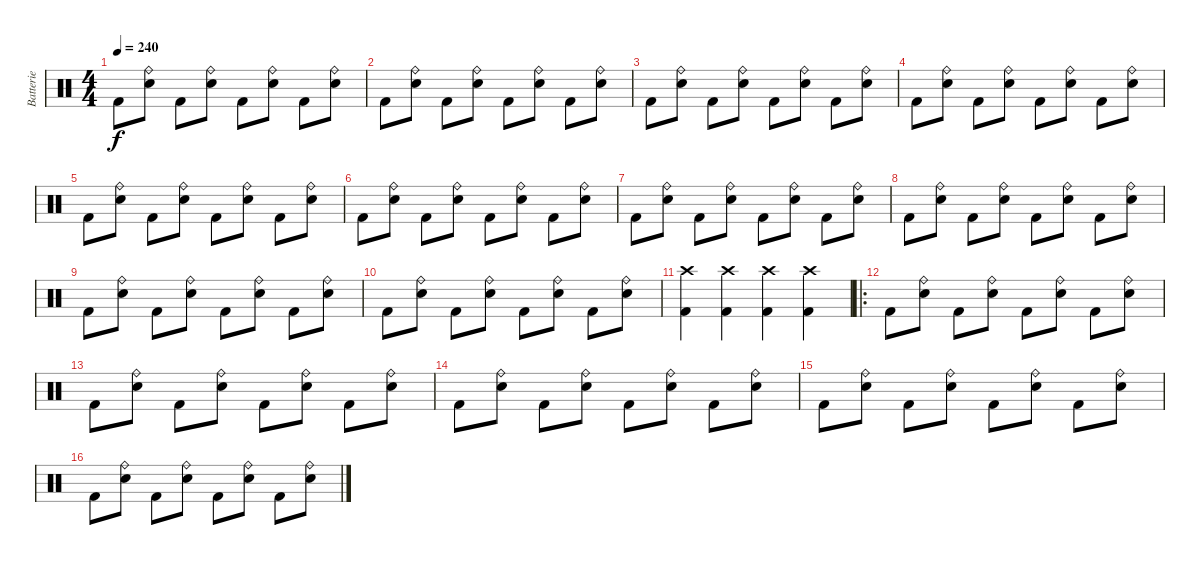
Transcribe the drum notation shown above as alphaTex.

\track ("Batterie" "Batterie") {instrument percussion}
\staff {score}
\articulation defaults
\ts (4 4)
\tempo 240
\clef neutral
\ks c "Kick (hit) 2".8{dy f}
("Ride (bell)" "Snare (hit) 2").8 "Kick (hit) 2".8 ("Ride (bell)" "Snare (hit) 2").8 "Kick (hit) 2".8 ("Ride (bell)" "Snare (hit) 2").8 "Kick (hit) 2".8 ("Ride (bell)" "Snare (hit) 2").8 |
"Kick (hit) 2".8 ("Ride (bell)" "Snare (hit) 2").8 "Kick (hit) 2".8 ("Ride (bell)" "Snare (hit) 2").8 "Kick (hit) 2".8 ("Ride (bell)" "Snare (hit) 2").8 "Kick (hit) 2".8 ("Ride (bell)" "Snare (hit) 2").8 |
"Kick (hit) 2".8 ("Ride (bell)" "Snare (hit) 2").8 "Kick (hit) 2".8 ("Ride (bell)" "Snare (hit) 2").8 "Kick (hit) 2".8 ("Ride (bell)" "Snare (hit) 2").8 "Kick (hit) 2".8 ("Ride (bell)" "Snare (hit) 2").8 |
"Kick (hit) 2".8 ("Ride (bell)" "Snare (hit) 2").8 "Kick (hit) 2".8 ("Ride (bell)" "Snare (hit) 2").8 "Kick (hit) 2".8 ("Ride (bell)" "Snare (hit) 2").8 "Kick (hit) 2".8 ("Ride (bell)" "Snare (hit) 2").8 |
"Kick (hit) 2".8 ("Ride (bell)" "Snare (hit) 2").8 "Kick (hit) 2".8 ("Ride (bell)" "Snare (hit) 2").8 "Kick (hit) 2".8 ("Ride (bell)" "Snare (hit) 2").8 "Kick (hit) 2".8 ("Ride (bell)" "Snare (hit) 2").8 |
"Kick (hit) 2".8 ("Ride (bell)" "Snare (hit) 2").8 "Kick (hit) 2".8 ("Ride (bell)" "Snare (hit) 2").8 "Kick (hit) 2".8 ("Ride (bell)" "Snare (hit) 2").8 "Kick (hit) 2".8 ("Ride (bell)" "Snare (hit) 2").8 |
"Kick (hit) 2".8 ("Ride (bell)" "Snare (hit) 2").8 "Kick (hit) 2".8 ("Ride (bell)" "Snare (hit) 2").8 "Kick (hit) 2".8 ("Ride (bell)" "Snare (hit) 2").8 "Kick (hit) 2".8 ("Ride (bell)" "Snare (hit) 2").8 |
"Kick (hit) 2".8 ("Ride (bell)" "Snare (hit) 2").8 "Kick (hit) 2".8 ("Ride (bell)" "Snare (hit) 2").8 "Kick (hit) 2".8 ("Ride (bell)" "Snare (hit) 2").8 "Kick (hit) 2".8 ("Ride (bell)" "Snare (hit) 2").8 |
"Kick (hit) 2".8 ("Ride (bell)" "Snare (hit) 2").8 "Kick (hit) 2".8 ("Ride (bell)" "Snare (hit) 2").8 "Kick (hit) 2".8 ("Ride (bell)" "Snare (hit) 2").8 "Kick (hit) 2".8 ("Ride (bell)" "Snare (hit) 2").8 |
"Kick (hit) 2".8 ("Ride (bell)" "Snare (hit) 2").8 "Kick (hit) 2".8 ("Ride (bell)" "Snare (hit) 2").8 "Kick (hit) 2".8 ("Ride (bell)" "Snare (hit) 2").8 "Kick (hit) 2".8 ("Ride (bell)" "Snare (hit) 2").8 |
("Crash high (hit)" "Kick (hit) 2").4 ("Crash high (hit)" "Kick (hit) 2").4 ("Crash high (hit)" "Kick (hit) 2").4 ("Crash high (hit)" "Kick (hit) 2").4 |
\ro "Kick (hit) 2".8
("Ride (bell)" "Snare (hit) 2").8 "Kick (hit) 2".8 ("Ride (bell)" "Snare (hit) 2").8 "Kick (hit) 2".8 ("Ride (bell)" "Snare (hit) 2").8 "Kick (hit) 2".8 ("Ride (bell)" "Snare (hit) 2").8 |
"Kick (hit) 2".8 ("Ride (bell)" "Snare (hit) 2").8 "Kick (hit) 2".8 ("Ride (bell)" "Snare (hit) 2").8 "Kick (hit) 2".8 ("Ride (bell)" "Snare (hit) 2").8 "Kick (hit) 2".8 ("Ride (bell)" "Snare (hit) 2").8 |
"Kick (hit) 2".8 ("Ride (bell)" "Snare (hit) 2").8 "Kick (hit) 2".8 ("Ride (bell)" "Snare (hit) 2").8 "Kick (hit) 2".8 ("Ride (bell)" "Snare (hit) 2").8 "Kick (hit) 2".8 ("Ride (bell)" "Snare (hit) 2").8 |
"Kick (hit) 2".8 ("Ride (bell)" "Snare (hit) 2").8 "Kick (hit) 2".8 ("Ride (bell)" "Snare (hit) 2").8 "Kick (hit) 2".8 ("Ride (bell)" "Snare (hit) 2").8 "Kick (hit) 2".8 ("Ride (bell)" "Snare (hit) 2").8 |
"Kick (hit) 2".8 ("Ride (bell)" "Snare (hit) 2").8 "Kick (hit) 2".8 ("Ride (bell)" "Snare (hit) 2").8 "Kick (hit) 2".8 ("Ride (bell)" "Snare (hit) 2").8 "Kick (hit) 2".8 ("Ride (bell)" "Snare (hit) 2").8
